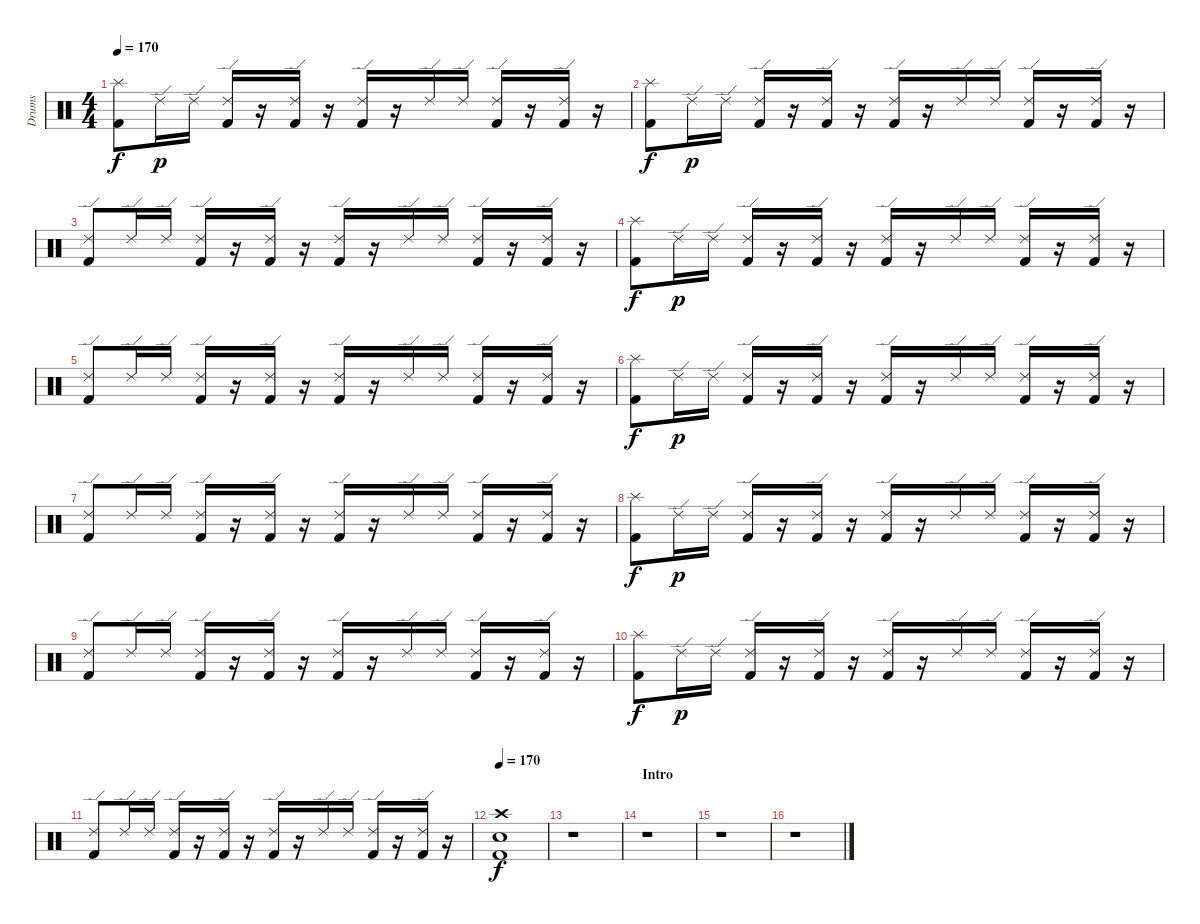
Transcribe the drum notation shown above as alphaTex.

\track ("Drums" "Drums") {instrument percussion}
\staff {score}
\articulation defaults
\ts (4 4)
\tempo 170
\tempo 115
\tempo 170
\clef neutral
\ks c
("Splash (hit)" "Kick (hit) 2").8{dy f} "Ride (edge) 2".16{dy p} "Ride (edge) 2".16 ("Ride (edge) 2" "Kick (hit) 2").16 r.16 ("Ride (edge) 2" "Kick (hit) 2").16 r.16 ("Ride (edge) 2" "Kick (hit) 2").16 r.16 "Ride (edge) 2".16 "Ride (edge) 2".16 ("Ride (edge) 2" "Kick (hit) 2").16 r.16 ("Ride (edge) 2" "Kick (hit) 2").16 r.16 |
("Splash (hit)" "Kick (hit) 2").8{dy f} "Ride (edge) 2".16{dy p} "Ride (edge) 2".16 ("Ride (edge) 2" "Kick (hit) 2").16 r.16 ("Ride (edge) 2" "Kick (hit) 2").16 r.16 ("Ride (edge) 2" "Kick (hit) 2").16 r.16 "Ride (edge) 2".16 "Ride (edge) 2".16 ("Ride (edge) 2" "Kick (hit) 2").16 r.16 ("Ride (edge) 2" "Kick (hit) 2").16 r.16 |
("Ride (edge) 2" "Kick (hit) 2").8 "Ride (edge) 2".16 "Ride (edge) 2".16 ("Ride (edge) 2" "Kick (hit) 2").16 r.16 ("Ride (edge) 2" "Kick (hit) 2").16 r.16 ("Ride (edge) 2" "Kick (hit) 2").16 r.16 "Ride (edge) 2".16 "Ride (edge) 2".16 ("Ride (edge) 2" "Kick (hit) 2").16 r.16 ("Ride (edge) 2" "Kick (hit) 2").16 r.16 |
("Splash (hit)" "Kick (hit) 2").8{dy f} "Ride (edge) 2".16{dy p} "Ride (edge) 2".16 ("Ride (edge) 2" "Kick (hit) 2").16 r.16 ("Ride (edge) 2" "Kick (hit) 2").16 r.16 ("Ride (edge) 2" "Kick (hit) 2").16 r.16 "Ride (edge) 2".16 "Ride (edge) 2".16 ("Ride (edge) 2" "Kick (hit) 2").16 r.16 ("Ride (edge) 2" "Kick (hit) 2").16 r.16 |
("Ride (edge) 2" "Kick (hit) 2").8 "Ride (edge) 2".16 "Ride (edge) 2".16 ("Ride (edge) 2" "Kick (hit) 2").16 r.16 ("Ride (edge) 2" "Kick (hit) 2").16 r.16 ("Ride (edge) 2" "Kick (hit) 2").16 r.16 "Ride (edge) 2".16 "Ride (edge) 2".16 ("Ride (edge) 2" "Kick (hit) 2").16 r.16 ("Ride (edge) 2" "Kick (hit) 2").16 r.16 |
("Splash (hit)" "Kick (hit) 2").8{dy f} "Ride (edge) 2".16{dy p} "Ride (edge) 2".16 ("Ride (edge) 2" "Kick (hit) 2").16 r.16 ("Ride (edge) 2" "Kick (hit) 2").16 r.16 ("Ride (edge) 2" "Kick (hit) 2").16 r.16 "Ride (edge) 2".16 "Ride (edge) 2".16 ("Ride (edge) 2" "Kick (hit) 2").16 r.16 ("Ride (edge) 2" "Kick (hit) 2").16 r.16 |
("Ride (edge) 2" "Kick (hit) 2").8 "Ride (edge) 2".16 "Ride (edge) 2".16 ("Ride (edge) 2" "Kick (hit) 2").16 r.16 ("Ride (edge) 2" "Kick (hit) 2").16 r.16 ("Ride (edge) 2" "Kick (hit) 2").16 r.16 "Ride (edge) 2".16 "Ride (edge) 2".16 ("Ride (edge) 2" "Kick (hit) 2").16 r.16 ("Ride (edge) 2" "Kick (hit) 2").16 r.16 |
("Splash (hit)" "Kick (hit) 2").8{dy f} "Ride (edge) 2".16{dy p} "Ride (edge) 2".16 ("Ride (edge) 2" "Kick (hit) 2").16 r.16 ("Ride (edge) 2" "Kick (hit) 2").16 r.16 ("Ride (edge) 2" "Kick (hit) 2").16 r.16 "Ride (edge) 2".16 "Ride (edge) 2".16 ("Ride (edge) 2" "Kick (hit) 2").16 r.16 ("Ride (edge) 2" "Kick (hit) 2").16 r.16 |
("Ride (edge) 2" "Kick (hit) 2").8 "Ride (edge) 2".16 "Ride (edge) 2".16 ("Ride (edge) 2" "Kick (hit) 2").16 r.16 ("Ride (edge) 2" "Kick (hit) 2").16 r.16 ("Ride (edge) 2" "Kick (hit) 2").16 r.16 "Ride (edge) 2".16 "Ride (edge) 2".16 ("Ride (edge) 2" "Kick (hit) 2").16 r.16 ("Ride (edge) 2" "Kick (hit) 2").16 r.16 |
("Splash (hit)" "Kick (hit) 2").8{dy f} "Ride (edge) 2".16{dy p} "Ride (edge) 2".16 ("Ride (edge) 2" "Kick (hit) 2").16 r.16 ("Ride (edge) 2" "Kick (hit) 2").16 r.16 ("Ride (edge) 2" "Kick (hit) 2").16 r.16 "Ride (edge) 2".16 "Ride (edge) 2".16 ("Ride (edge) 2" "Kick (hit) 2").16 r.16 ("Ride (edge) 2" "Kick (hit) 2").16 r.16 |
("Ride (edge) 2" "Kick (hit) 2").8 "Ride (edge) 2".16 "Ride (edge) 2".16 ("Ride (edge) 2" "Kick (hit) 2").16 r.16 ("Ride (edge) 2" "Kick (hit) 2").16 r.16 ("Ride (edge) 2" "Kick (hit) 2").16 r.16 "Ride (edge) 2".16 "Ride (edge) 2".16 ("Ride (edge) 2" "Kick (hit) 2").16 r.16 ("Ride (edge) 2" "Kick (hit) 2").16 r.16 |
\tempo 170
("Crash high (hit)" "Electric Snare (hit)" "Kick (hit) 2").1{dy f} |
r.1 |
\section ("" "Intro ")
r.1 |
r.1 |
r.1
